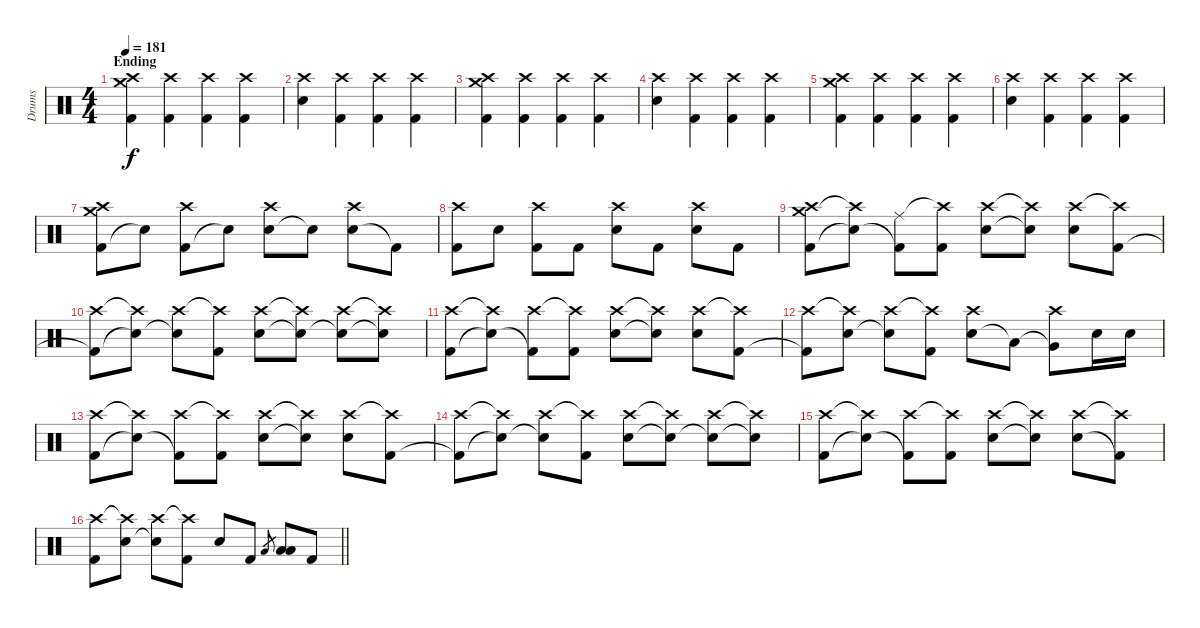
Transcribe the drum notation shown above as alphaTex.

\track ("Drums" "Drums") {instrument percussion}
\staff {score}
\articulation defaults
\ts (4 4)
\section ("" "Ending")
\tempo 181
\clef neutral
\ks c
("Kick (hit) 2" "Crash medium (hit)" "Crash high (hit)").4{dy f} ("Kick (hit) 2" "Crash high (hit)").4 ("Kick (hit) 2" "Crash high (hit)").4 ("Kick (hit) 2" "Crash high (hit)").4 |
("Electric Snare (hit)" "Crash high (hit)").4 ("Kick (hit) 2" "Crash high (hit)").4 ("Kick (hit) 2" "Crash high (hit)").4 ("Kick (hit) 2" "Crash high (hit)").4 |
("Kick (hit) 2" "Crash medium (hit)" "Crash high (hit)").4 ("Kick (hit) 2" "Crash high (hit)").4 ("Kick (hit) 2" "Crash high (hit)").4 ("Kick (hit) 2" "Crash high (hit)").4 |
("Electric Snare (hit)" "Crash high (hit)").4 ("Kick (hit) 2" "Crash high (hit)").4 ("Kick (hit) 2" "Crash high (hit)").4 ("Kick (hit) 2" "Crash high (hit)").4 |
("Kick (hit) 2" "Crash medium (hit)" "Crash high (hit)").4 ("Kick (hit) 2" "Crash high (hit)").4 ("Kick (hit) 2" "Crash high (hit)").4 ("Kick (hit) 2" "Crash high (hit)").4 |
("Electric Snare (hit)" "Crash high (hit)").4 ("Kick (hit) 2" "Crash high (hit)").4 ("Kick (hit) 2" "Crash high (hit)").4 ("Kick (hit) 2" "Crash high (hit)").4 |
("Kick (hit) 2" "Crash medium (hit)" "Crash high (hit)").8 "Snare (hit)"{t}.8 ("Kick (hit) 2" "Crash high (hit)").8 "Snare (hit)"{t}.8 ("Electric Snare (hit)" "Crash high (hit)").8 "Snare (hit)"{t}.8 ("Electric Snare (hit)" "Crash high (hit)").8 "Kick (hit) 2"{t}.8 |
("Kick (hit) 2" "Crash high (hit)").8 "Electric Snare (hit)".8 ("Kick (hit) 2" "Crash high (hit)").8 "Kick (hit) 2".8 ("Electric Snare (hit)" "Crash high (hit)").8 "Kick (hit) 2".8 ("Electric Snare (hit)" "Crash high (hit)").8 "Kick (hit) 2".8 |
("Kick (hit) 2" "Crash medium (hit)" "Crash high (hit)").8 ("Snare (hit)"{t} "Crash high (hit)"{t}).8 ("Kick (hit) 2"{t} "Ride (middle)").8 ("Kick (hit) 2" "Crash high (hit)"{t}).8 ("Electric Snare (hit)" "Crash high (hit)").8 ("Electric Snare (hit)"{t} "Crash high (hit)"{t}).8 ("Electric Snare (hit)" "Crash high (hit)").8 ("Kick (hit) 2" "Crash high (hit)"{t}).8 |
("Kick (hit) 2"{t} "Crash high (hit)").8 ("Snare (hit)"{t} "Crash high (hit)"{t}).8 ("Snare (hit)"{t} "Crash high (hit)").8 ("Kick (hit) 2" "Crash high (hit)"{t}).8 ("Electric Snare (hit)" "Crash high (hit)").8 ("Snare (hit)"{t} "Crash high (hit)"{t}).8 ("Snare (hit)"{t} "Crash high (hit)").8 ("Snare (hit)"{t} "Crash high (hit)"{t}).8 |
("Kick (hit) 2" "Crash high (hit)").8 ("Snare (hit)"{t} "Crash high (hit)"{t}).8 ("Kick (hit) 2"{t} "Crash high (hit)").8 ("Kick (hit) 2" "Crash high (hit)"{t}).8 ("Electric Snare (hit)" "Crash high (hit)").8 ("Electric Snare (hit)"{t} "Crash high (hit)"{t}).8 ("Electric Snare (hit)" "Crash high (hit)").8 ("Kick (hit) 2" "Crash high (hit)"{t}).8 |
("Kick (hit) 2"{t} "Crash high (hit)").8 ("Electric Snare (hit)" "Crash high (hit)"{t}).8 ("Snare (hit)"{t} "Crash high (hit)").8 ("Kick (hit) 2" "Crash high (hit)"{t}).8 ("Electric Snare (hit)" "Crash high (hit)").8 "Low Tom (hit)"{t}.8 ("Very Low Tom (hit)"{t} "Crash high (hit)").8 "Electric Snare (hit)".16 "Electric Snare (hit)".16 |
("Kick (hit) 2" "Crash high (hit)").8 ("Snare (hit)"{t} "Crash high (hit)"{t}).8 ("Kick (hit) 2"{t} "Crash high (hit)").8 ("Kick (hit) 2" "Crash high (hit)"{t}).8 ("Electric Snare (hit)" "Crash high (hit)").8 ("Electric Snare (hit)"{t} "Crash high (hit)"{t}).8 ("Electric Snare (hit)" "Crash high (hit)").8 ("Kick (hit) 2" "Crash high (hit)"{t}).8 |
("Kick (hit) 2"{t} "Crash high (hit)").8 ("Snare (hit)"{t} "Crash high (hit)"{t}).8 ("Snare (hit)"{t} "Crash high (hit)").8 ("Kick (hit) 2" "Crash high (hit)"{t}).8 ("Electric Snare (hit)" "Crash high (hit)").8 ("Snare (hit)"{t} "Crash high (hit)"{t}).8 ("Snare (hit)"{t} "Crash high (hit)").8 ("Snare (hit)"{t} "Crash high (hit)"{t}).8 |
("Kick (hit) 2" "Crash high (hit)").8 ("Snare (hit)"{t} "Crash high (hit)"{t}).8 ("Kick (hit) 2"{t} "Crash high (hit)").8 ("Kick (hit) 2" "Crash high (hit)"{t}).8 ("Electric Snare (hit)" "Crash high (hit)").8 ("Electric Snare (hit)"{t} "Crash high (hit)"{t}).8 ("Electric Snare (hit)" "Crash high (hit)").8 ("Kick (hit) 2"{t} "Crash high (hit)"{t}).8 |
\barLineRight lightlight
("Kick (hit) 2" "Crash high (hit)").8 ("Electric Snare (hit)" "Crash high (hit)"{t}).8 ("Snare (hit)"{t} "Crash high (hit)").8 ("Kick (hit) 2" "Crash high (hit)"{t}).8 "Electric Snare (hit)".8 "Kick (hit) 2".8 "Low Tom (hit)".8{gr} ("Low Tom (hit)" "Low Floor Tom (hit)").8 "Kick (hit) 2".8
